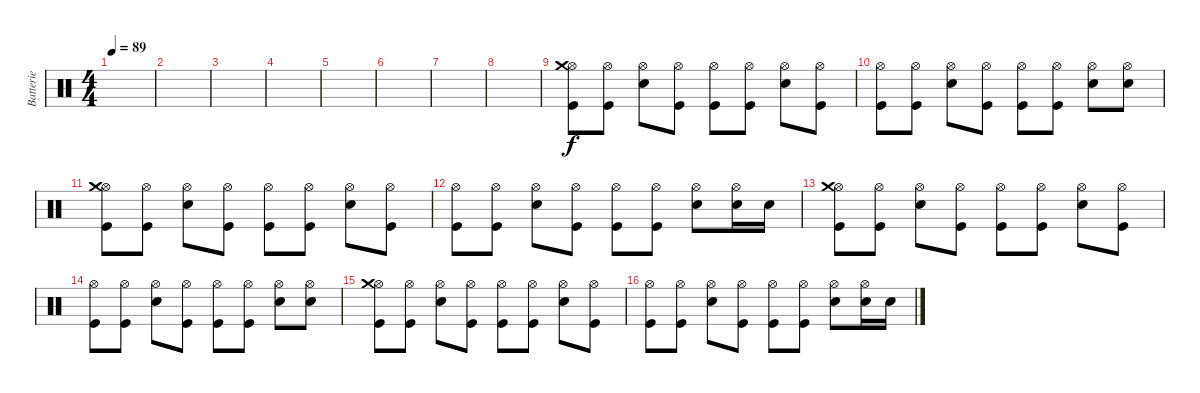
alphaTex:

\track ("Batterie" "Batterie") {instrument percussion}
\staff {score}
\articulation defaults
\ts (4 4)
\tempo 89
\clef neutral
\ks c
|
|
|
|
|
|
|
|
("Kick (hit)" "Hi-Hat (open)" "Crash medium (hit)").8 ("Kick (hit)" "Hi-Hat (open)").8 ("Electric Snare (hit)" "Hi-Hat (open)").8 ("Kick (hit)" "Hi-Hat (open)").8 ("Kick (hit)" "Hi-Hat (open)").8 ("Kick (hit)" "Hi-Hat (open)").8 ("Electric Snare (hit)" "Hi-Hat (open)").8 ("Kick (hit)" "Hi-Hat (open)").8 |
("Kick (hit)" "Hi-Hat (open)").8 ("Kick (hit)" "Hi-Hat (open)").8 ("Electric Snare (hit)" "Hi-Hat (open)").8 ("Kick (hit)" "Hi-Hat (open)").8 ("Kick (hit)" "Hi-Hat (open)").8 ("Kick (hit)" "Hi-Hat (open)").8 ("Electric Snare (hit)" "Hi-Hat (open)").8 ("Electric Snare (hit)" "Hi-Hat (open)").8 |
("Kick (hit)" "Hi-Hat (open)" "Crash medium (hit)").8 ("Kick (hit)" "Hi-Hat (open)").8 ("Electric Snare (hit)" "Hi-Hat (open)").8 ("Kick (hit)" "Hi-Hat (open)").8 ("Kick (hit)" "Hi-Hat (open)").8 ("Kick (hit)" "Hi-Hat (open)").8 ("Electric Snare (hit)" "Hi-Hat (open)").8 ("Kick (hit)" "Hi-Hat (open)").8 |
("Kick (hit)" "Hi-Hat (open)").8 ("Kick (hit)" "Hi-Hat (open)").8 ("Electric Snare (hit)" "Hi-Hat (open)").8 ("Kick (hit)" "Hi-Hat (open)").8 ("Kick (hit)" "Hi-Hat (open)").8 ("Kick (hit)" "Hi-Hat (open)").8 ("Electric Snare (hit)" "Hi-Hat (open)").8 ("Electric Snare (hit)" "Hi-Hat (open)").16 "Electric Snare (hit)".16 |
("Kick (hit)" "Hi-Hat (open)" "Crash medium (hit)").8 ("Kick (hit)" "Hi-Hat (open)").8 ("Electric Snare (hit)" "Hi-Hat (open)").8 ("Kick (hit)" "Hi-Hat (open)").8 ("Kick (hit)" "Hi-Hat (open)").8 ("Kick (hit)" "Hi-Hat (open)").8 ("Electric Snare (hit)" "Hi-Hat (open)").8 ("Kick (hit)" "Hi-Hat (open)").8 |
("Kick (hit)" "Hi-Hat (open)").8 ("Kick (hit)" "Hi-Hat (open)").8 ("Electric Snare (hit)" "Hi-Hat (open)").8 ("Kick (hit)" "Hi-Hat (open)").8 ("Kick (hit)" "Hi-Hat (open)").8 ("Kick (hit)" "Hi-Hat (open)").8 ("Electric Snare (hit)" "Hi-Hat (open)").8 ("Electric Snare (hit)" "Hi-Hat (open)").8 |
("Kick (hit)" "Hi-Hat (open)" "Crash medium (hit)").8 ("Kick (hit)" "Hi-Hat (open)").8 ("Electric Snare (hit)" "Hi-Hat (open)").8 ("Kick (hit)" "Hi-Hat (open)").8 ("Kick (hit)" "Hi-Hat (open)").8 ("Kick (hit)" "Hi-Hat (open)").8 ("Electric Snare (hit)" "Hi-Hat (open)").8 ("Kick (hit)" "Hi-Hat (open)").8 |
("Kick (hit)" "Hi-Hat (open)").8 ("Kick (hit)" "Hi-Hat (open)").8 ("Electric Snare (hit)" "Hi-Hat (open)").8 ("Kick (hit)" "Hi-Hat (open)").8 ("Kick (hit)" "Hi-Hat (open)").8 ("Kick (hit)" "Hi-Hat (open)").8 ("Electric Snare (hit)" "Hi-Hat (open)").8 ("Electric Snare (hit)" "Hi-Hat (open)").16 "Electric Snare (hit)".16
